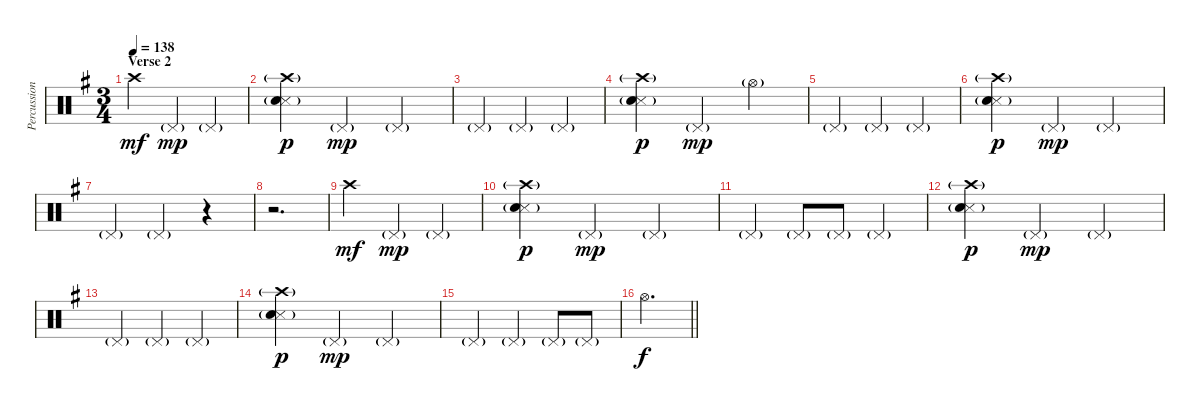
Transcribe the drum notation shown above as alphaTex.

\track ("Percussion (Thomen Stauch)" "Percussion") {instrument percussion}
\staff {score}
\articulation defaults
\ts (3 4)
\section ("" "Verse 2")
\tempo 138
\clef neutral
\ks eminor "Crash high (hit)".4{dy mf} "Pedal Hi-Hat (hit)"{g}.4{dy mp} "Pedal Hi-Hat (hit)"{g}.4
|
("Crash high (hit)"{g} "Snare (side stick) 3" "Snare (hit) 2"{g}).4{dy p} "Pedal Hi-Hat (hit)"{g}.4{dy mp} "Pedal Hi-Hat (hit)"{g}.4 |
"Pedal Hi-Hat (hit)"{g}.4 "Pedal Hi-Hat (hit)"{g}.4 "Pedal Hi-Hat (hit)"{g}.4 |
("Crash high (hit)"{g} "Snare (side stick) 3" "Snare (hit) 2"{g}).4{dy p} "Pedal Hi-Hat (hit)"{g}.4{dy mp} "Hi-Hat (open)"{g}.4 |
"Pedal Hi-Hat (hit)"{g}.4 "Pedal Hi-Hat (hit)"{g}.4 "Pedal Hi-Hat (hit)"{g}.4 |
("Crash high (hit)"{g} "Snare (side stick) 3" "Snare (hit) 2"{g}).4{dy p} "Pedal Hi-Hat (hit)"{g}.4{dy mp} "Pedal Hi-Hat (hit)"{g}.4 |
"Pedal Hi-Hat (hit)"{g}.4 "Pedal Hi-Hat (hit)"{g}.4 r.4 |
r.2{d} |
"Crash high (hit)".4{dy mf} "Pedal Hi-Hat (hit)"{g}.4{dy mp} "Pedal Hi-Hat (hit)"{g}.4 |
("Crash high (hit)"{g} "Snare (side stick) 3" "Snare (hit) 2"{g}).4{dy p} "Pedal Hi-Hat (hit)"{g}.4{dy mp} "Pedal Hi-Hat (hit)"{g}.4 |
"Pedal Hi-Hat (hit)"{g}.4 "Pedal Hi-Hat (hit)"{g}.8 "Pedal Hi-Hat (hit)"{g}.8 "Pedal Hi-Hat (hit)"{g}.4 |
("Crash high (hit)"{g} "Snare (side stick) 3" "Snare (hit) 2"{g}).4{dy p} "Pedal Hi-Hat (hit)"{g}.4{dy mp} "Pedal Hi-Hat (hit)"{g}.4 |
"Pedal Hi-Hat (hit)"{g}.4 "Pedal Hi-Hat (hit)"{g}.4 "Pedal Hi-Hat (hit)"{g}.4 |
("Crash high (hit)"{g} "Snare (side stick) 3" "Snare (hit) 2"{g}).4{dy p} "Pedal Hi-Hat (hit)"{g}.4{dy mp} "Pedal Hi-Hat (hit)"{g}.4 |
"Pedal Hi-Hat (hit)"{g}.4 "Pedal Hi-Hat (hit)"{g}.4 "Pedal Hi-Hat (hit)"{g}.8 "Pedal Hi-Hat (hit)"{g}.8 |
\barLineRight lightlight "Hi-Hat (open)".2{d dy f}
